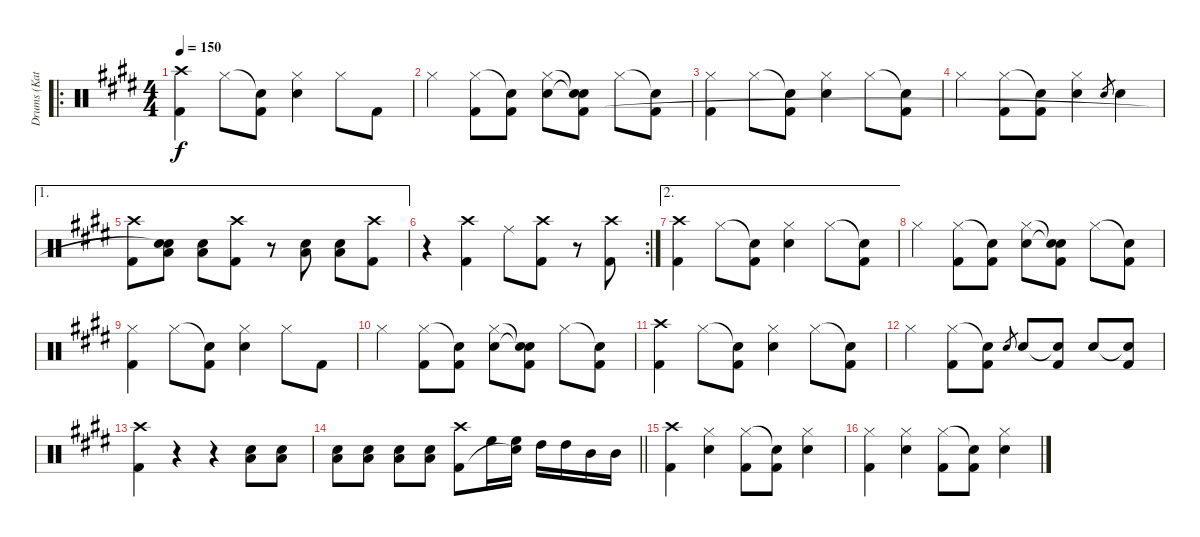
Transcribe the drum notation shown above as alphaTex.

\track ("Drums (Katsuji)" "Drums (Kat") {instrument percussion}
\staff {score}
\articulation defaults
\ro
\ts (4 4)
\tempo 150
\clef neutral
\ks e
("Crash high (hit)" "Kick (hit) 2").4{dy f} "Hi-Hat (closed)".8 ("Snare (hit)"{t} "Kick (hit) 2").8 ("Hi-Hat (closed)" "Snare (hit) 2").4 "Hi-Hat (closed)".8 "Kick (hit) 2".8 |
"Hi-Hat (closed)".4 ("Hi-Hat (closed)" "Kick (hit) 2").8 ("Snare (hit)"{t} "Kick (hit) 2").8 ("Hi-Hat (closed)" "Snare (hit) 2").8 ("Snare (hit)"{t} "Snare (hit)"{t} "Kick (hit) 2").8 "Hi-Hat (closed)".8 ("Snare (hit)"{t} "Kick (hit) 2").8 |
("Hi-Hat (closed)" "Kick (hit) 2").4 "Hi-Hat (closed)".8 ("Snare (hit)"{t} "Kick (hit) 2").8 ("Hi-Hat (closed)" "Snare (hit) 2").4 "Hi-Hat (closed)".8 ("Snare (hit)"{t} "Kick (hit) 2").8 |
"Hi-Hat (closed)".4 ("Hi-Hat (closed)" "Kick (hit) 2").8 ("Snare (hit)"{t} "Kick (hit) 2").8 ("Hi-Hat (closed)" "Snare (hit) 2").4 "Snare (hit) 2".8{gr} "Snare (hit) 2".4 |
\ae 1
("Crash high (hit)" "Kick (hit) 2").8 ("Snare (hit) 2" "Low Tom (hit)" "Snare (hit)"{t}).8 ("Snare (hit) 2" "Low Tom (hit)").8 ("Crash high (hit)" "Kick (hit) 2").8 r.8 ("Snare (hit) 2" "Low Tom (hit)").8 ("Snare (hit) 2" "Low Tom (hit)").8 ("Crash high (hit)" "Kick (hit) 2").8 |
\rc 2
r.4 ("Crash high (hit)" "Kick (hit) 2").4 "Ride (middle)".8 ("Crash high (hit)" "Kick (hit) 2").8 r.8 ("Crash high (hit)" "Kick (hit) 2").8 |
\ae 2
("Crash high (hit)" "Kick (hit) 2").4 "Hi-Hat (closed)".8 ("Snare (hit)"{t} "Kick (hit) 2").8 ("Hi-Hat (closed)" "Snare (hit) 2").4 "Hi-Hat (closed)".8 ("Snare (hit)"{t} "Kick (hit) 2").8 |
"Hi-Hat (closed)".4 ("Hi-Hat (closed)" "Kick (hit) 2").8 ("Snare (hit)"{t} "Kick (hit) 2").8 ("Hi-Hat (closed)" "Snare (hit) 2").8 ("Snare (hit)"{t} "Snare (hit)"{t} "Kick (hit) 2").8 "Hi-Hat (closed)".8 ("Snare (hit)"{t} "Kick (hit) 2").8 |
("Hi-Hat (closed)" "Kick (hit) 2").4 "Hi-Hat (closed)".8 ("Snare (hit)"{t} "Kick (hit) 2").8 ("Hi-Hat (closed)" "Snare (hit) 2").4 "Hi-Hat (closed)".8 "Kick (hit) 2".8 |
"Hi-Hat (closed)".4 ("Hi-Hat (closed)" "Kick (hit) 2").8 ("Snare (hit)"{t} "Kick (hit) 2").8 ("Hi-Hat (closed)" "Snare (hit) 2").8 ("Snare (hit)"{t} "Snare (hit)"{t} "Kick (hit) 2").8 "Hi-Hat (closed)".8 ("Snare (hit)"{t} "Kick (hit) 2").8 |
("Crash high (hit)" "Kick (hit) 2").4 "Hi-Hat (closed)".8 ("Snare (hit)"{t} "Kick (hit) 2").8 ("Hi-Hat (closed)" "Snare (hit) 2").4 "Hi-Hat (closed)".8 ("Snare (hit)"{t} "Kick (hit) 2").8 |
"Hi-Hat (closed)".4 ("Hi-Hat (closed)" "Kick (hit) 2").8 ("Snare (hit)"{t} "Kick (hit) 2").8 "Snare (hit) 2".8{gr} "Snare (hit) 2".8 ("Snare (hit)"{t} "Kick (hit) 2").8 "Snare (hit) 2".8 ("Snare (hit)"{t} "Kick (hit) 2").8 |
("Crash high (hit)" "Kick (hit) 2").4 r.4 r.4 ("Snare (hit) 2" "Low Tom (hit)").8 ("Snare (hit) 2" "Low Tom (hit)").8 |
\barLineRight lightlight
("Snare (hit) 2" "Low Tom (hit)").8 ("Snare (hit) 2" "Low Tom (hit)").8 ("Snare (hit) 2" "Low Tom (hit)").8 ("Snare (hit) 2" "Low Tom (hit)").8 ("Crash high (hit)" "Kick (hit) 2").8 "High Floor Tom (hit)".16 ("High Floor Tom (hit)" "Snare (hit)"{t}).16 "High Tom (hit)".16 "High Tom (hit)".16 "Mid Tom (hit)".16 "Mid Tom (hit)".16 |
("Crash high (hit)" "Kick (hit) 2").4 ("Hi-Hat (closed)" "Snare (hit) 2").4 ("Hi-Hat (closed)" "Kick (hit) 2").8 ("Snare (hit)"{t} "Kick (hit) 2").8 ("Hi-Hat (closed)" "Snare (hit) 2").4 |
("Hi-Hat (closed)" "Kick (hit) 2").4 ("Hi-Hat (closed)" "Snare (hit) 2").4 ("Hi-Hat (closed)" "Kick (hit) 2").8 ("Snare (hit)"{t} "Kick (hit) 2").8 ("Hi-Hat (closed)" "Snare (hit) 2").4
